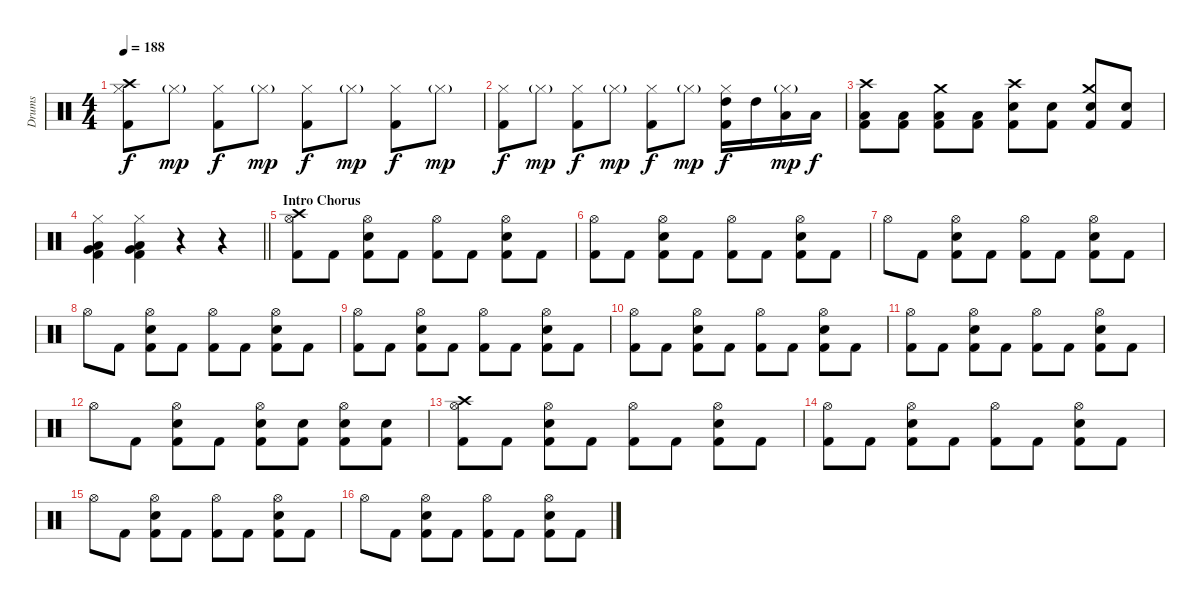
\track ("Drums" "Drums") {instrument percussion}
\staff {score}
\articulation defaults
\ts (4 4)
\tempo 188
\clef neutral
\ks c
("Crash high (hit)" "Hi-Hat (closed)" "Kick (hit) 2").8{dy f} "Hi-Hat (closed)"{g}.8{dy mp} ("Hi-Hat (closed)" "Kick (hit) 2").8{dy f} "Hi-Hat (closed)"{g}.8{dy mp} ("Hi-Hat (closed)" "Kick (hit) 2").8{dy f} "Hi-Hat (closed)"{g}.8{dy mp} ("Hi-Hat (closed)" "Kick (hit) 2").8{dy f} "Hi-Hat (closed)"{g}.8{dy mp} |
("Hi-Hat (closed)" "Kick (hit) 2").8{dy f} "Hi-Hat (closed)"{g}.8{dy mp} ("Hi-Hat (closed)" "Kick (hit) 2").8{dy f} "Hi-Hat (closed)"{g}.8{dy mp} ("Hi-Hat (closed)" "Kick (hit) 2").8{dy f} "Hi-Hat (closed)"{g}.8{dy mp} ("Hi-Hat (closed)" "High Tom (hit)" "Kick (hit) 2").16{dy f} "High Tom (hit)".16 ("Hi-Hat (closed)"{g} "Low Tom (hit)").16{dy mp} "Low Tom (hit)".16{dy f} |
("Crash high (hit)" "Low Floor Tom (hit)" "Kick (hit) 2").8 ("Low Floor Tom (hit)" "Kick (hit) 2").8 ("Crash medium (hit)" "Low Floor Tom (hit)" "Kick (hit) 2").8 ("Low Floor Tom (hit)" "Kick (hit) 2").8 ("Crash high (hit)" "Snare (hit) 2" "Kick (hit) 2").8 ("Snare (hit) 2" "Kick (hit) 2").8 ("Crash medium (hit)" "Snare (hit) 2" "Kick (hit) 2").8 ("Snare (hit) 2" "Kick (hit) 2").8 |
\barLineRight lightlight
("Hi-Hat (closed)" "Very Low Tom (hit)" "Low Floor Tom (hit)" "Kick (hit) 2").4 ("Hi-Hat (closed)" "Very Low Tom (hit)" "Low Floor Tom (hit)" "Kick (hit) 2").4 r.4 r.4 |
\section ("" "Intro Chorus")
("Crash high (hit)" "Hi-Hat (open)" "Kick (hit) 2").8 "Kick (hit) 2".8 ("Hi-Hat (open)" "Snare (hit) 2" "Kick (hit) 2").8 "Kick (hit) 2".8 ("Hi-Hat (open)" "Kick (hit) 2").8 "Kick (hit) 2".8 ("Hi-Hat (open)" "Snare (hit) 2" "Kick (hit) 2").8 "Kick (hit) 2".8 |
("Hi-Hat (open)" "Kick (hit) 2").8 "Kick (hit) 2".8 ("Hi-Hat (open)" "Snare (hit) 2" "Kick (hit) 2").8 "Kick (hit) 2".8 ("Hi-Hat (open)" "Kick (hit) 2").8 "Kick (hit) 2".8 ("Hi-Hat (open)" "Snare (hit) 2" "Kick (hit) 2").8 "Kick (hit) 2".8 |
"Hi-Hat (open)".8 "Kick (hit) 2".8 ("Hi-Hat (open)" "Snare (hit) 2" "Kick (hit) 2").8 "Kick (hit) 2".8 ("Hi-Hat (open)" "Kick (hit) 2").8 "Kick (hit) 2".8 ("Hi-Hat (open)" "Snare (hit) 2" "Kick (hit) 2").8 "Kick (hit) 2".8 |
"Hi-Hat (open)".8 "Kick (hit) 2".8 ("Hi-Hat (open)" "Snare (hit) 2" "Kick (hit) 2").8 "Kick (hit) 2".8 ("Hi-Hat (open)" "Kick (hit) 2").8 "Kick (hit) 2".8 ("Hi-Hat (open)" "Snare (hit) 2" "Kick (hit) 2").8 "Kick (hit) 2".8 |
("Hi-Hat (open)" "Kick (hit) 2").8 "Kick (hit) 2".8 ("Hi-Hat (open)" "Snare (hit) 2" "Kick (hit) 2").8 "Kick (hit) 2".8 ("Hi-Hat (open)" "Kick (hit) 2").8 "Kick (hit) 2".8 ("Hi-Hat (open)" "Snare (hit) 2" "Kick (hit) 2").8 "Kick (hit) 2".8 |
("Hi-Hat (open)" "Kick (hit) 2").8 "Kick (hit) 2".8 ("Hi-Hat (open)" "Snare (hit) 2" "Kick (hit) 2").8 "Kick (hit) 2".8 ("Hi-Hat (open)" "Kick (hit) 2").8 "Kick (hit) 2".8 ("Hi-Hat (open)" "Snare (hit) 2" "Kick (hit) 2").8 "Kick (hit) 2".8 |
("Hi-Hat (open)" "Kick (hit) 2").8 "Kick (hit) 2".8 ("Hi-Hat (open)" "Snare (hit) 2" "Kick (hit) 2").8 "Kick (hit) 2".8 ("Hi-Hat (open)" "Kick (hit) 2").8 "Kick (hit) 2".8 ("Hi-Hat (open)" "Snare (hit) 2" "Kick (hit) 2").8 "Kick (hit) 2".8 |
"Hi-Hat (open)".8 "Kick (hit) 2".8 ("Hi-Hat (open)" "Snare (hit) 2" "Kick (hit) 2").8 "Kick (hit) 2".8 ("Hi-Hat (open)" "Snare (hit) 2" "Kick (hit) 2").8 ("Snare (hit) 2" "Kick (hit) 2").8 ("Hi-Hat (open)" "Snare (hit) 2" "Kick (hit) 2").8 ("Snare (hit) 2" "Kick (hit) 2").8 |
("Crash high (hit)" "Hi-Hat (open)" "Kick (hit) 2").8 "Kick (hit) 2".8 ("Hi-Hat (open)" "Snare (hit) 2" "Kick (hit) 2").8 "Kick (hit) 2".8 ("Hi-Hat (open)" "Kick (hit) 2").8 "Kick (hit) 2".8 ("Hi-Hat (open)" "Snare (hit) 2" "Kick (hit) 2").8 "Kick (hit) 2".8 |
("Hi-Hat (open)" "Kick (hit) 2").8 "Kick (hit) 2".8 ("Hi-Hat (open)" "Snare (hit) 2" "Kick (hit) 2").8 "Kick (hit) 2".8 ("Hi-Hat (open)" "Kick (hit) 2").8 "Kick (hit) 2".8 ("Hi-Hat (open)" "Snare (hit) 2" "Kick (hit) 2").8 "Kick (hit) 2".8 |
"Hi-Hat (open)".8 "Kick (hit) 2".8 ("Hi-Hat (open)" "Snare (hit) 2" "Kick (hit) 2").8 "Kick (hit) 2".8 ("Hi-Hat (open)" "Kick (hit) 2").8 "Kick (hit) 2".8 ("Hi-Hat (open)" "Snare (hit) 2" "Kick (hit) 2").8 "Kick (hit) 2".8 |
"Hi-Hat (open)".8 "Kick (hit) 2".8 ("Hi-Hat (open)" "Snare (hit) 2" "Kick (hit) 2").8 "Kick (hit) 2".8 ("Hi-Hat (open)" "Kick (hit) 2").8 "Kick (hit) 2".8 ("Hi-Hat (open)" "Snare (hit) 2" "Kick (hit) 2").8 "Kick (hit) 2".8
